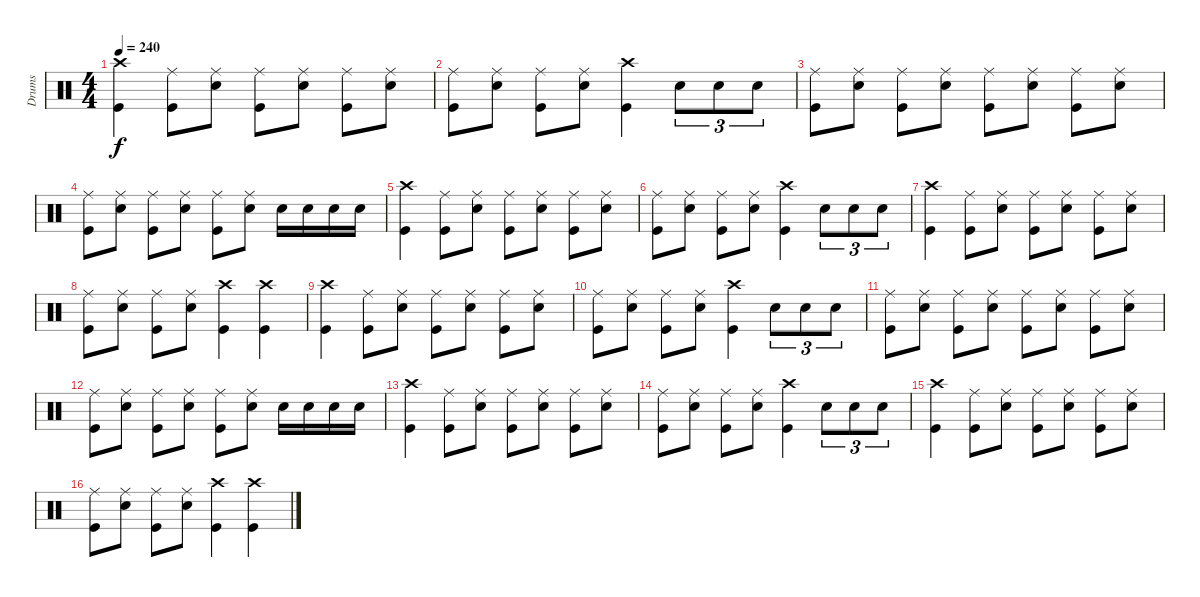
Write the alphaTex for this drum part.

\track ("Drums" "Drums") {instrument percussion}
\staff {score}
\articulation defaults
\ts (4 4)
\tempo 240
\clef neutral
\ks c
("Crash high (hit)" "Kick (hit)").4{dy f} ("Ride (middle)" "Kick (hit)").8 ("Ride (middle)" "Snare (hit) 2").8 ("Ride (middle)" "Kick (hit)").8 ("Ride (middle)" "Snare (hit) 2").8 ("Ride (middle)" "Kick (hit)").8 ("Ride (middle)" "Snare (hit) 2").8 |
("Ride (middle)" "Kick (hit)").8 ("Ride (middle)" "Snare (hit) 2").8 ("Ride (middle)" "Kick (hit)").8 ("Ride (middle)" "Snare (hit) 2").8 ("Crash high (hit)" "Kick (hit)").4 "Snare (hit) 2".8{tu (3 2)} "Snare (hit) 2".8{tu (3 2)} "Snare (hit) 2".8{tu (3 2)} |
("Ride (middle)" "Kick (hit)").8 ("Ride (middle)" "Snare (hit) 2").8 ("Ride (middle)" "Kick (hit)").8 ("Ride (middle)" "Snare (hit) 2").8 ("Ride (middle)" "Kick (hit)").8 ("Ride (middle)" "Snare (hit) 2").8 ("Ride (middle)" "Kick (hit)").8 ("Ride (middle)" "Snare (hit) 2").8 |
("Ride (middle)" "Kick (hit)").8 ("Ride (middle)" "Snare (hit) 2").8 ("Ride (middle)" "Kick (hit)").8 ("Ride (middle)" "Snare (hit) 2").8 ("Ride (middle)" "Kick (hit)").8 ("Ride (middle)" "Snare (hit) 2").8 "Snare (hit) 2".16 "Snare (hit) 2".16 "Snare (hit) 2".16 "Snare (hit) 2".16 |
("Crash high (hit)" "Kick (hit)").4 ("Ride (middle)" "Kick (hit)").8 ("Ride (middle)" "Snare (hit) 2").8 ("Ride (middle)" "Kick (hit)").8 ("Ride (middle)" "Snare (hit) 2").8 ("Ride (middle)" "Kick (hit)").8 ("Ride (middle)" "Snare (hit) 2").8 |
("Ride (middle)" "Kick (hit)").8 ("Ride (middle)" "Snare (hit) 2").8 ("Ride (middle)" "Kick (hit)").8 ("Ride (middle)" "Snare (hit) 2").8 ("Crash high (hit)" "Kick (hit)").4 "Snare (hit) 2".8{tu (3 2)} "Snare (hit) 2".8{tu (3 2)} "Snare (hit) 2".8{tu (3 2)} |
("Crash high (hit)" "Kick (hit)").4 ("Ride (middle)" "Kick (hit)").8 ("Ride (middle)" "Snare (hit) 2").8 ("Ride (middle)" "Kick (hit)").8 ("Ride (middle)" "Snare (hit) 2").8 ("Ride (middle)" "Kick (hit)").8 ("Ride (middle)" "Snare (hit) 2").8 |
("Ride (middle)" "Kick (hit)").8 ("Ride (middle)" "Snare (hit) 2").8 ("Ride (middle)" "Kick (hit)").8 ("Ride (middle)" "Snare (hit) 2").8 ("Crash high (hit)" "Kick (hit)").4 ("Crash high (hit)" "Kick (hit)").4 |
("Crash high (hit)" "Kick (hit)").4 ("Ride (middle)" "Kick (hit)").8 ("Ride (middle)" "Snare (hit) 2").8 ("Ride (middle)" "Kick (hit)").8 ("Ride (middle)" "Snare (hit) 2").8 ("Ride (middle)" "Kick (hit)").8 ("Ride (middle)" "Snare (hit) 2").8 |
("Ride (middle)" "Kick (hit)").8 ("Ride (middle)" "Snare (hit) 2").8 ("Ride (middle)" "Kick (hit)").8 ("Ride (middle)" "Snare (hit) 2").8 ("Crash high (hit)" "Kick (hit)").4 "Snare (hit) 2".8{tu (3 2)} "Snare (hit) 2".8{tu (3 2)} "Snare (hit) 2".8{tu (3 2)} |
("Ride (middle)" "Kick (hit)").8 ("Ride (middle)" "Snare (hit) 2").8 ("Ride (middle)" "Kick (hit)").8 ("Ride (middle)" "Snare (hit) 2").8 ("Ride (middle)" "Kick (hit)").8 ("Ride (middle)" "Snare (hit) 2").8 ("Ride (middle)" "Kick (hit)").8 ("Ride (middle)" "Snare (hit) 2").8 |
("Ride (middle)" "Kick (hit)").8 ("Ride (middle)" "Snare (hit) 2").8 ("Ride (middle)" "Kick (hit)").8 ("Ride (middle)" "Snare (hit) 2").8 ("Ride (middle)" "Kick (hit)").8 ("Ride (middle)" "Snare (hit) 2").8 "Snare (hit) 2".16 "Snare (hit) 2".16 "Snare (hit) 2".16 "Snare (hit) 2".16 |
("Crash high (hit)" "Kick (hit)").4 ("Ride (middle)" "Kick (hit)").8 ("Ride (middle)" "Snare (hit) 2").8 ("Ride (middle)" "Kick (hit)").8 ("Ride (middle)" "Snare (hit) 2").8 ("Ride (middle)" "Kick (hit)").8 ("Ride (middle)" "Snare (hit) 2").8 |
("Ride (middle)" "Kick (hit)").8 ("Ride (middle)" "Snare (hit) 2").8 ("Ride (middle)" "Kick (hit)").8 ("Ride (middle)" "Snare (hit) 2").8 ("Crash high (hit)" "Kick (hit)").4 "Snare (hit) 2".8{tu (3 2)} "Snare (hit) 2".8{tu (3 2)} "Snare (hit) 2".8{tu (3 2)} |
("Crash high (hit)" "Kick (hit)").4 ("Ride (middle)" "Kick (hit)").8 ("Ride (middle)" "Snare (hit) 2").8 ("Ride (middle)" "Kick (hit)").8 ("Ride (middle)" "Snare (hit) 2").8 ("Ride (middle)" "Kick (hit)").8 ("Ride (middle)" "Snare (hit) 2").8 |
("Ride (middle)" "Kick (hit)").8 ("Ride (middle)" "Snare (hit) 2").8 ("Ride (middle)" "Kick (hit)").8 ("Ride (middle)" "Snare (hit) 2").8 ("Crash high (hit)" "Kick (hit)").4 ("Crash high (hit)" "Kick (hit)").4
